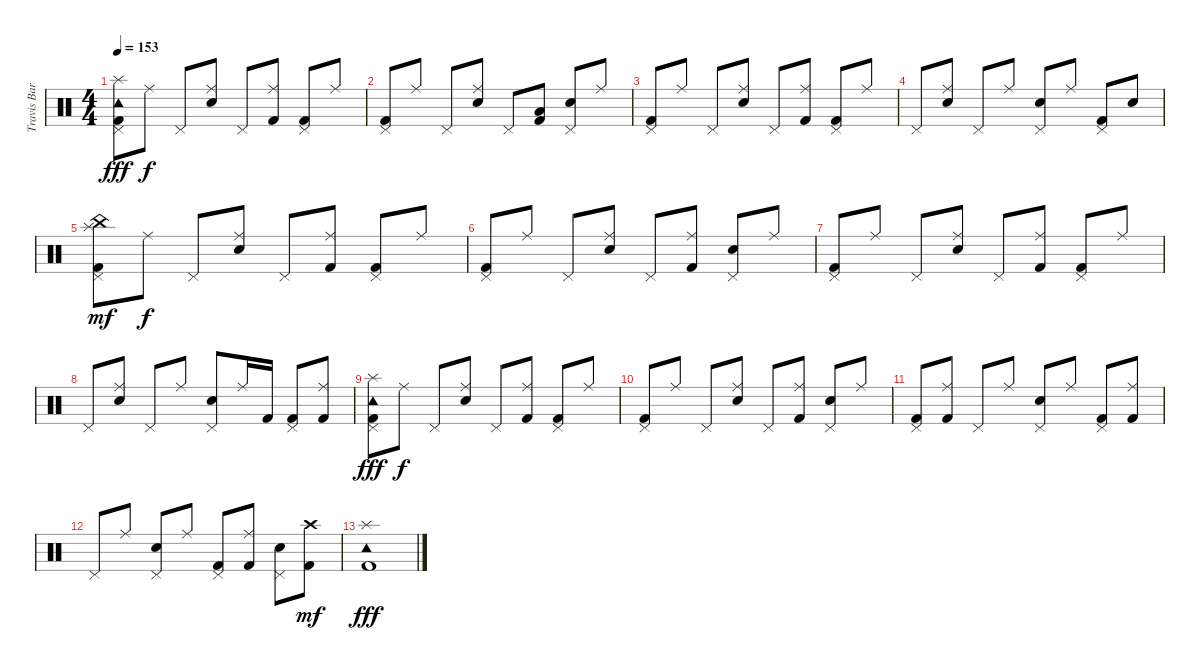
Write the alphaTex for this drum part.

\track ("Travis Barker" "Travis Bar") {instrument percussion}
\staff {score}
\articulation defaults
\ts (4 4)
\tempo 153
\clef neutral
\ks c
("Splash (hit)" "Tambourine (hit)" "Kick (hit) 2" "Pedal Hi-Hat (hit)").8{dy fff} "Ride (middle)".8{dy f} "Pedal Hi-Hat (hit)".8 ("Ride (middle)" "Electric Snare (hit)").8 "Pedal Hi-Hat (hit)".8 ("Ride (middle)" "Kick (hit) 2").8 ("Kick (hit) 2" "Pedal Hi-Hat (hit)").8 "Ride (middle)".8 |
("Kick (hit) 2" "Pedal Hi-Hat (hit)").8 "Ride (middle)".8 "Pedal Hi-Hat (hit)".8 ("Ride (middle)" "Electric Snare (hit)").8 "Pedal Hi-Hat (hit)".8 ("Low Floor Tom (hit)" "Kick (hit) 2").8 ("Electric Snare (hit)" "Pedal Hi-Hat (hit)").8 "Ride (middle)".8 |
("Kick (hit) 2" "Pedal Hi-Hat (hit)").8 "Ride (middle)".8 "Pedal Hi-Hat (hit)".8 ("Ride (middle)" "Electric Snare (hit)").8 "Pedal Hi-Hat (hit)".8 ("Ride (middle)" "Kick (hit) 2").8 ("Kick (hit) 2" "Pedal Hi-Hat (hit)").8 "Ride (middle)".8 |
"Pedal Hi-Hat (hit)".8 ("Ride (middle)" "Electric Snare (hit)").8 "Pedal Hi-Hat (hit)".8 "Ride (middle)".8 ("Electric Snare (hit)" "Pedal Hi-Hat (hit)").8 "Ride (middle)".8 ("Kick (hit) 2" "Pedal Hi-Hat (hit)").8 "Electric Snare (hit)".8 |
("China (hit)" "Splash (hit)" "Kick (hit) 2" "Pedal Hi-Hat (hit)").8{dy mf} "Ride (middle)".8{dy f} "Pedal Hi-Hat (hit)".8 ("Ride (middle)" "Electric Snare (hit)").8 "Pedal Hi-Hat (hit)".8 ("Ride (middle)" "Kick (hit) 2").8 ("Kick (hit) 2" "Pedal Hi-Hat (hit)").8 "Ride (middle)".8 |
("Kick (hit) 2" "Pedal Hi-Hat (hit)").8 "Ride (middle)".8 "Pedal Hi-Hat (hit)".8 ("Ride (middle)" "Electric Snare (hit)").8 "Pedal Hi-Hat (hit)".8 ("Ride (middle)" "Kick (hit) 2").8 ("Electric Snare (hit)" "Pedal Hi-Hat (hit)").8 "Ride (middle)".8 |
("Kick (hit) 2" "Pedal Hi-Hat (hit)").8 "Ride (middle)".8 "Pedal Hi-Hat (hit)".8 ("Ride (middle)" "Electric Snare (hit)").8 "Pedal Hi-Hat (hit)".8 ("Ride (middle)" "Kick (hit) 2").8 ("Kick (hit) 2" "Pedal Hi-Hat (hit)").8 "Ride (middle)".8 |
"Pedal Hi-Hat (hit)".8 ("Ride (middle)" "Electric Snare (hit)").8 "Pedal Hi-Hat (hit)".8 "Ride (middle)".8 ("Electric Snare (hit)" "Pedal Hi-Hat (hit)").8 "Ride (middle)".16 "Kick (hit) 2".16 ("Kick (hit) 2" "Pedal Hi-Hat (hit)").8 ("Ride (middle)" "Kick (hit) 2").8 |
("Splash (hit)" "Tambourine (hit)" "Kick (hit) 2" "Pedal Hi-Hat (hit)").8{dy fff} "Ride (middle)".8{dy f} "Pedal Hi-Hat (hit)".8 ("Ride (middle)" "Electric Snare (hit)").8 "Pedal Hi-Hat (hit)".8 ("Ride (middle)" "Kick (hit) 2").8 ("Kick (hit) 2" "Pedal Hi-Hat (hit)").8 "Ride (middle)".8 |
("Kick (hit) 2" "Pedal Hi-Hat (hit)").8 "Ride (middle)".8 "Pedal Hi-Hat (hit)".8 ("Ride (middle)" "Electric Snare (hit)").8 "Pedal Hi-Hat (hit)".8 ("Ride (middle)" "Kick (hit) 2").8 ("Electric Snare (hit)" "Pedal Hi-Hat (hit)").8 "Ride (middle)".8 |
("Kick (hit) 2" "Pedal Hi-Hat (hit)").8 ("Ride (middle)" "Kick (hit) 2").8 "Pedal Hi-Hat (hit)".8 "Ride (middle)".8 ("Electric Snare (hit)" "Pedal Hi-Hat (hit)").8 "Ride (middle)".8 ("Kick (hit) 2" "Pedal Hi-Hat (hit)").8 ("Ride (middle)" "Kick (hit) 2").8 |
"Pedal Hi-Hat (hit)".8 "Ride (middle)".8 ("Electric Snare (hit)" "Pedal Hi-Hat (hit)").8 "Ride (middle)".8 ("Kick (hit) 2" "Pedal Hi-Hat (hit)").8 ("Ride (middle)" "Kick (hit) 2").8 ("Electric Snare (hit)" "Pedal Hi-Hat (hit)").8 ("Crash high (hit)" "Kick (hit) 2").8{dy mf} |
("Splash (hit)" "Tambourine (hit)" "Kick (hit) 2").1{dy fff}
